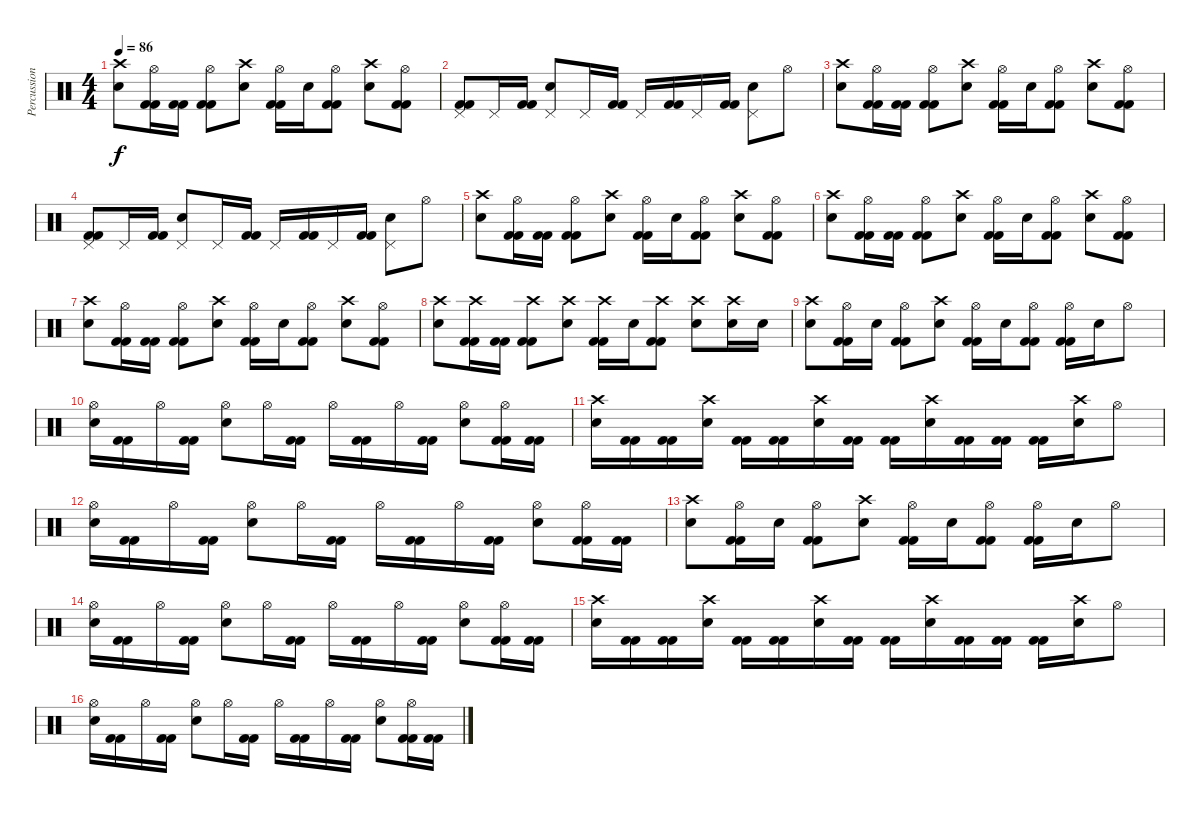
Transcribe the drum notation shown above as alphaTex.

\track ("Percussion" "Percussion") {instrument percussion}
\staff {score}
\articulation defaults
\ts (4 4)
\tempo 86
\clef neutral
\ks c
("Crash high (hit)" "Snare (hit) 2").8{dy f} ("Hi-Hat (open)" "Kick (hit) 2" "Kick (hit) 2").16 ("Kick (hit) 2" "Kick (hit) 2").16 ("Hi-Hat (open)" "Kick (hit) 2" "Kick (hit) 2").8 ("Crash high (hit)" "Snare (hit) 2").8 ("Hi-Hat (open)" "Kick (hit) 2" "Kick (hit) 2").16 "Snare (hit) 2".16 ("Hi-Hat (open)" "Kick (hit) 2" "Kick (hit) 2").8 ("Crash high (hit)" "Snare (hit) 2").8 ("Hi-Hat (open)" "Kick (hit) 2" "Kick (hit) 2").8 |
("Pedal Hi-Hat (hit)" "Kick (hit) 2" "Kick (hit) 2").8 "Pedal Hi-Hat (hit)".16 ("Kick (hit) 2" "Kick (hit) 2").16 ("Pedal Hi-Hat (hit)" "Snare (hit) 2").8 "Pedal Hi-Hat (hit)".16 ("Kick (hit) 2" "Kick (hit) 2").16 "Pedal Hi-Hat (hit)".16 ("Kick (hit) 2" "Kick (hit) 2").16 "Pedal Hi-Hat (hit)".16 ("Kick (hit) 2" "Kick (hit) 2").16 ("Pedal Hi-Hat (hit)" "Snare (hit) 2").8 "Hi-Hat (open)".8 |
("Crash high (hit)" "Snare (hit) 2").8 ("Hi-Hat (open)" "Kick (hit) 2" "Kick (hit) 2").16 ("Kick (hit) 2" "Kick (hit) 2").16 ("Hi-Hat (open)" "Kick (hit) 2" "Kick (hit) 2").8 ("Crash high (hit)" "Snare (hit) 2").8 ("Hi-Hat (open)" "Kick (hit) 2" "Kick (hit) 2").16 "Snare (hit) 2".16 ("Hi-Hat (open)" "Kick (hit) 2" "Kick (hit) 2").8 ("Crash high (hit)" "Snare (hit) 2").8 ("Hi-Hat (open)" "Kick (hit) 2" "Kick (hit) 2").8 |
("Pedal Hi-Hat (hit)" "Kick (hit) 2" "Kick (hit) 2").8 "Pedal Hi-Hat (hit)".16 ("Kick (hit) 2" "Kick (hit) 2").16 ("Pedal Hi-Hat (hit)" "Snare (hit) 2").8 "Pedal Hi-Hat (hit)".16 ("Kick (hit) 2" "Kick (hit) 2").16 "Pedal Hi-Hat (hit)".16 ("Kick (hit) 2" "Kick (hit) 2").16 "Pedal Hi-Hat (hit)".16 ("Kick (hit) 2" "Kick (hit) 2").16 ("Pedal Hi-Hat (hit)" "Snare (hit) 2").8 "Hi-Hat (open)".8 |
("Crash high (hit)" "Snare (hit) 2").8 ("Hi-Hat (open)" "Kick (hit) 2" "Kick (hit) 2").16 ("Kick (hit) 2" "Kick (hit) 2").16 ("Hi-Hat (open)" "Kick (hit) 2" "Kick (hit) 2").8 ("Crash high (hit)" "Snare (hit) 2").8 ("Hi-Hat (open)" "Kick (hit) 2" "Kick (hit) 2").16 "Snare (hit) 2".16 ("Hi-Hat (open)" "Kick (hit) 2" "Kick (hit) 2").8 ("Crash high (hit)" "Snare (hit) 2").8 ("Hi-Hat (open)" "Kick (hit) 2" "Kick (hit) 2").8 |
("Crash high (hit)" "Snare (hit) 2").8 ("Hi-Hat (open)" "Kick (hit) 2" "Kick (hit) 2").16 ("Kick (hit) 2" "Kick (hit) 2").16 ("Hi-Hat (open)" "Kick (hit) 2" "Kick (hit) 2").8 ("Crash high (hit)" "Snare (hit) 2").8 ("Hi-Hat (open)" "Kick (hit) 2" "Kick (hit) 2").16 "Snare (hit) 2".16 ("Hi-Hat (open)" "Kick (hit) 2" "Kick (hit) 2").8 ("Crash high (hit)" "Snare (hit) 2").8 ("Hi-Hat (open)" "Kick (hit) 2" "Kick (hit) 2").8 |
("Crash high (hit)" "Snare (hit) 2").8 ("Hi-Hat (open)" "Kick (hit) 2" "Kick (hit) 2").16 ("Kick (hit) 2" "Kick (hit) 2").16 ("Hi-Hat (open)" "Kick (hit) 2" "Kick (hit) 2").8 ("Crash high (hit)" "Snare (hit) 2").8 ("Hi-Hat (open)" "Kick (hit) 2" "Kick (hit) 2").16 "Snare (hit) 2".16 ("Hi-Hat (open)" "Kick (hit) 2" "Kick (hit) 2").8 ("Crash high (hit)" "Snare (hit) 2").8 ("Hi-Hat (open)" "Kick (hit) 2" "Kick (hit) 2").8 |
("Crash high (hit)" "Snare (hit) 2").8 ("Crash high (hit)" "Kick (hit) 2" "Kick (hit) 2").16 ("Kick (hit) 2" "Kick (hit) 2").16 ("Crash high (hit)" "Kick (hit) 2" "Kick (hit) 2").8 ("Crash high (hit)" "Snare (hit) 2").8 ("Crash high (hit)" "Kick (hit) 2" "Kick (hit) 2").16 "Snare (hit) 2".16 ("Crash high (hit)" "Kick (hit) 2" "Kick (hit) 2").8 ("Crash high (hit)" "Snare (hit) 2").8 ("Crash high (hit)" "Snare (hit) 2").16 "Snare (hit) 2".16 |
("Crash high (hit)" "Snare (hit) 2").8 ("Hi-Hat (open)" "Kick (hit) 2" "Kick (hit) 2").16 "Snare (hit) 2".16 ("Hi-Hat (open)" "Kick (hit) 2" "Kick (hit) 2").8 ("Crash high (hit)" "Snare (hit) 2").8 ("Hi-Hat (open)" "Kick (hit) 2" "Kick (hit) 2").16 "Snare (hit) 2".16 ("Hi-Hat (open)" "Kick (hit) 2" "Kick (hit) 2").8 ("Hi-Hat (open)" "Kick (hit) 2" "Kick (hit) 2").16 "Snare (hit) 2".16 "Hi-Hat (open)".8 |
("Hi-Hat (open)" "Snare (hit) 2").16 ("Kick (hit) 2" "Kick (hit) 2").16 "Hi-Hat (open)".16 ("Kick (hit) 2" "Kick (hit) 2").16 ("Hi-Hat (open)" "Snare (hit) 2").8 "Hi-Hat (open)".16 ("Kick (hit) 2" "Kick (hit) 2").16 "Hi-Hat (open)".16 ("Kick (hit) 2" "Kick (hit) 2").16 "Hi-Hat (open)".16 ("Kick (hit) 2" "Kick (hit) 2").16 ("Hi-Hat (open)" "Snare (hit) 2").8 ("Hi-Hat (open)" "Kick (hit) 2" "Kick (hit) 2").16 ("Kick (hit) 2" "Kick (hit) 2").16 |
("Crash high (hit)" "Snare (hit) 2").16 ("Kick (hit) 2" "Kick (hit) 2").16 ("Kick (hit) 2" "Kick (hit) 2").16 ("Crash high (hit)" "Snare (hit) 2").16 ("Kick (hit) 2" "Kick (hit) 2").16 ("Kick (hit) 2" "Kick (hit) 2").16 ("Crash high (hit)" "Snare (hit) 2").16 ("Kick (hit) 2" "Kick (hit) 2").16 ("Kick (hit) 2" "Kick (hit) 2").16 ("Crash high (hit)" "Snare (hit) 2").16 ("Kick (hit) 2" "Kick (hit) 2").16 ("Kick (hit) 2" "Kick (hit) 2").16 ("Kick (hit) 2" "Kick (hit) 2").16 ("Crash high (hit)" "Snare (hit) 2").16 "Hi-Hat (open)".8 |
("Hi-Hat (open)" "Snare (hit) 2").16 ("Kick (hit) 2" "Kick (hit) 2").16 "Hi-Hat (open)".16 ("Kick (hit) 2" "Kick (hit) 2").16 ("Hi-Hat (open)" "Snare (hit) 2").8 "Hi-Hat (open)".16 ("Kick (hit) 2" "Kick (hit) 2").16 "Hi-Hat (open)".16 ("Kick (hit) 2" "Kick (hit) 2").16 "Hi-Hat (open)".16 ("Kick (hit) 2" "Kick (hit) 2").16 ("Hi-Hat (open)" "Snare (hit) 2").8 ("Hi-Hat (open)" "Kick (hit) 2" "Kick (hit) 2").16 ("Kick (hit) 2" "Kick (hit) 2").16 |
("Crash high (hit)" "Snare (hit) 2").8 ("Hi-Hat (open)" "Kick (hit) 2" "Kick (hit) 2").16 "Snare (hit) 2".16 ("Hi-Hat (open)" "Kick (hit) 2" "Kick (hit) 2").8 ("Crash high (hit)" "Snare (hit) 2").8 ("Hi-Hat (open)" "Kick (hit) 2" "Kick (hit) 2").16 "Snare (hit) 2".16 ("Hi-Hat (open)" "Kick (hit) 2" "Kick (hit) 2").8 ("Hi-Hat (open)" "Kick (hit) 2" "Kick (hit) 2").16 "Snare (hit) 2".16 "Hi-Hat (open)".8 |
("Hi-Hat (open)" "Snare (hit) 2").16 ("Kick (hit) 2" "Kick (hit) 2").16 "Hi-Hat (open)".16 ("Kick (hit) 2" "Kick (hit) 2").16 ("Hi-Hat (open)" "Snare (hit) 2").8 "Hi-Hat (open)".16 ("Kick (hit) 2" "Kick (hit) 2").16 "Hi-Hat (open)".16 ("Kick (hit) 2" "Kick (hit) 2").16 "Hi-Hat (open)".16 ("Kick (hit) 2" "Kick (hit) 2").16 ("Hi-Hat (open)" "Snare (hit) 2").8 ("Hi-Hat (open)" "Kick (hit) 2" "Kick (hit) 2").16 ("Kick (hit) 2" "Kick (hit) 2").16 |
("Crash high (hit)" "Snare (hit) 2").16 ("Kick (hit) 2" "Kick (hit) 2").16 ("Kick (hit) 2" "Kick (hit) 2").16 ("Crash high (hit)" "Snare (hit) 2").16 ("Kick (hit) 2" "Kick (hit) 2").16 ("Kick (hit) 2" "Kick (hit) 2").16 ("Crash high (hit)" "Snare (hit) 2").16 ("Kick (hit) 2" "Kick (hit) 2").16 ("Kick (hit) 2" "Kick (hit) 2").16 ("Crash high (hit)" "Snare (hit) 2").16 ("Kick (hit) 2" "Kick (hit) 2").16 ("Kick (hit) 2" "Kick (hit) 2").16 ("Kick (hit) 2" "Kick (hit) 2").16 ("Crash high (hit)" "Snare (hit) 2").16 "Hi-Hat (open)".8 |
("Hi-Hat (open)" "Snare (hit) 2").16 ("Kick (hit) 2" "Kick (hit) 2").16 "Hi-Hat (open)".16 ("Kick (hit) 2" "Kick (hit) 2").16 ("Hi-Hat (open)" "Snare (hit) 2").8 "Hi-Hat (open)".16 ("Kick (hit) 2" "Kick (hit) 2").16 "Hi-Hat (open)".16 ("Kick (hit) 2" "Kick (hit) 2").16 "Hi-Hat (open)".16 ("Kick (hit) 2" "Kick (hit) 2").16 ("Hi-Hat (open)" "Snare (hit) 2").8 ("Hi-Hat (open)" "Kick (hit) 2" "Kick (hit) 2").16 ("Kick (hit) 2" "Kick (hit) 2").16
